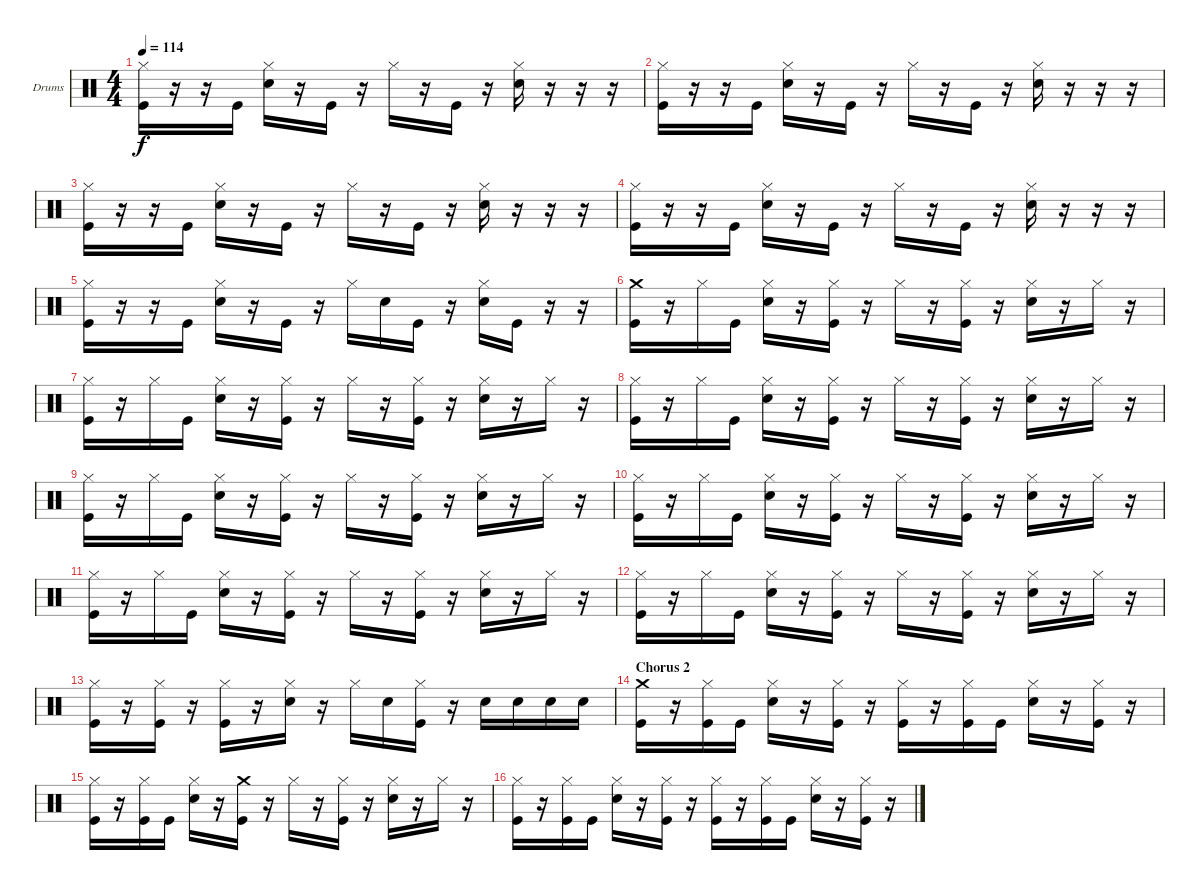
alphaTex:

\bracketExtendMode groupsimilarinstruments
\firstSystemTrackNameOrientation horizontal
\otherSystemsTrackNameOrientation horizontal
\track ("Drums" "Drums") {instrument percussion}
\staff {score}
\articulation defaults
\ts (4 4)
\tempo 114
\clef neutral
\ks c
("Hi-Hat (closed)" "Kick (hit)").16{dy f} r.16 r.16 "Kick (hit)".16 ("Hi-Hat (closed)" "Snare (hit) 2").16 r.16 "Kick (hit)".16 r.16 "Hi-Hat (closed)".16 r.16 "Kick (hit)".16 r.16 ("Hi-Hat (closed)" "Snare (hit) 2").16 r.16 r.16 r.16 |
("Hi-Hat (closed)" "Kick (hit)").16 r.16 r.16 "Kick (hit)".16 ("Hi-Hat (closed)" "Snare (hit) 2").16 r.16 "Kick (hit)".16 r.16 "Hi-Hat (closed)".16 r.16 "Kick (hit)".16 r.16 ("Hi-Hat (closed)" "Snare (hit) 2").16 r.16 r.16 r.16 |
("Hi-Hat (closed)" "Kick (hit)").16 r.16 r.16 "Kick (hit)".16 ("Hi-Hat (closed)" "Snare (hit) 2").16 r.16 "Kick (hit)".16 r.16 "Hi-Hat (closed)".16 r.16 "Kick (hit)".16 r.16 ("Hi-Hat (closed)" "Snare (hit) 2").16 r.16 r.16 r.16 |
("Hi-Hat (closed)" "Kick (hit)").16 r.16 r.16 "Kick (hit)".16 ("Hi-Hat (closed)" "Snare (hit) 2").16 r.16 "Kick (hit)".16 r.16 "Hi-Hat (closed)".16 r.16 "Kick (hit)".16 r.16 ("Hi-Hat (closed)" "Snare (hit) 2").16 r.16 r.16 r.16 |
("Hi-Hat (closed)" "Kick (hit)").16 r.16 r.16 "Kick (hit)".16 ("Hi-Hat (closed)" "Snare (hit) 2").16 r.16 "Kick (hit)".16 r.16 "Hi-Hat (closed)".16 "Snare (hit) 2".16 "Kick (hit)".16 r.16 ("Hi-Hat (closed)" "Snare (hit) 2").16 "Kick (hit)".16 r.16 r.16 |
("Crash medium (hit)" "Kick (hit)").16 r.16 "Hi-Hat (closed)".16 "Kick (hit)".16 ("Hi-Hat (closed)" "Snare (hit) 2").16 r.16 ("Hi-Hat (closed)" "Kick (hit)").16 r.16 "Hi-Hat (closed)".16 r.16 ("Hi-Hat (closed)" "Kick (hit)").16 r.16 ("Hi-Hat (closed)" "Snare (hit) 2").16 r.16 "Hi-Hat (closed)".16 r.16 |
("Hi-Hat (closed)" "Kick (hit)").16 r.16 "Hi-Hat (closed)".16 "Kick (hit)".16 ("Hi-Hat (closed)" "Snare (hit) 2").16 r.16 ("Hi-Hat (closed)" "Kick (hit)").16 r.16 "Hi-Hat (closed)".16 r.16 ("Hi-Hat (closed)" "Kick (hit)").16 r.16 ("Hi-Hat (closed)" "Snare (hit) 2").16 r.16 "Hi-Hat (closed)".16 r.16 |
("Hi-Hat (closed)" "Kick (hit)").16 r.16 "Hi-Hat (closed)".16 "Kick (hit)".16 ("Hi-Hat (closed)" "Snare (hit) 2").16 r.16 ("Hi-Hat (closed)" "Kick (hit)").16 r.16 "Hi-Hat (closed)".16 r.16 ("Hi-Hat (closed)" "Kick (hit)").16 r.16 ("Hi-Hat (closed)" "Snare (hit) 2").16 r.16 "Hi-Hat (closed)".16 r.16 |
("Hi-Hat (closed)" "Kick (hit)").16 r.16 "Hi-Hat (closed)".16 "Kick (hit)".16 ("Hi-Hat (closed)" "Snare (hit) 2").16 r.16 ("Hi-Hat (closed)" "Kick (hit)").16 r.16 "Hi-Hat (closed)".16 r.16 ("Hi-Hat (closed)" "Kick (hit)").16 r.16 ("Hi-Hat (closed)" "Snare (hit) 2").16 r.16 "Hi-Hat (closed)".16 r.16 |
("Hi-Hat (closed)" "Kick (hit)").16 r.16 "Hi-Hat (closed)".16 "Kick (hit)".16 ("Hi-Hat (closed)" "Snare (hit) 2").16 r.16 ("Hi-Hat (closed)" "Kick (hit)").16 r.16 "Hi-Hat (closed)".16 r.16 ("Hi-Hat (closed)" "Kick (hit)").16 r.16 ("Hi-Hat (closed)" "Snare (hit) 2").16 r.16 "Hi-Hat (closed)".16 r.16 |
("Hi-Hat (closed)" "Kick (hit)").16 r.16 "Hi-Hat (closed)".16 "Kick (hit)".16 ("Hi-Hat (closed)" "Snare (hit) 2").16 r.16 ("Hi-Hat (closed)" "Kick (hit)").16 r.16 "Hi-Hat (closed)".16 r.16 ("Hi-Hat (closed)" "Kick (hit)").16 r.16 ("Hi-Hat (closed)" "Snare (hit) 2").16 r.16 "Hi-Hat (closed)".16 r.16 |
("Hi-Hat (closed)" "Kick (hit)").16 r.16 "Hi-Hat (closed)".16 "Kick (hit)".16 ("Hi-Hat (closed)" "Snare (hit) 2").16 r.16 ("Hi-Hat (closed)" "Kick (hit)").16 r.16 "Hi-Hat (closed)".16 r.16 ("Hi-Hat (closed)" "Kick (hit)").16 r.16 ("Hi-Hat (closed)" "Snare (hit) 2").16 r.16 "Hi-Hat (closed)".16 r.16 |
("Hi-Hat (closed)" "Kick (hit)").16 r.16 ("Hi-Hat (closed)" "Kick (hit)").16 r.16 ("Hi-Hat (closed)" "Kick (hit)").16 r.16 ("Hi-Hat (closed)" "Snare (hit) 2").16 r.16 "Hi-Hat (closed)".16 "Snare (hit) 2".16 ("Hi-Hat (closed)" "Kick (hit)").16 r.16 "Snare (hit) 2".16 "Snare (hit) 2".16 "Snare (hit) 2".16 "Snare (hit) 2".16 |
\section ("" "Chorus 2")
("Crash medium (hit)" "Kick (hit)").16 r.16 ("Hi-Hat (closed)" "Kick (hit)").16 "Kick (hit)".16 ("Hi-Hat (closed)" "Snare (hit) 2").16 r.16 ("Hi-Hat (closed)" "Kick (hit)").16 r.16 ("Hi-Hat (closed)" "Kick (hit)").16 r.16 ("Hi-Hat (closed)" "Kick (hit)").16 "Kick (hit)".16 ("Hi-Hat (closed)" "Snare (hit) 2").16 r.16 ("Hi-Hat (closed)" "Kick (hit)").16 r.16 |
("Hi-Hat (closed)" "Kick (hit)").16 r.16 ("Hi-Hat (closed)" "Kick (hit)").16 "Kick (hit)".16 ("Hi-Hat (closed)" "Snare (hit) 2").16 r.16 ("Crash medium (hit)" "Kick (hit)").16 r.16 "Hi-Hat (closed)".16 r.16 ("Hi-Hat (closed)" "Kick (hit)").16 r.16 ("Hi-Hat (closed)" "Snare (hit) 2").16 r.16 "Hi-Hat (closed)".16 r.16 |
("Hi-Hat (closed)" "Kick (hit)").16 r.16 ("Hi-Hat (closed)" "Kick (hit)").16 "Kick (hit)".16 ("Hi-Hat (closed)" "Snare (hit) 2").16 r.16 ("Hi-Hat (closed)" "Kick (hit)").16 r.16 ("Hi-Hat (closed)" "Kick (hit)").16 r.16 ("Hi-Hat (closed)" "Kick (hit)").16 "Kick (hit)".16 ("Hi-Hat (closed)" "Snare (hit) 2").16 r.16 ("Hi-Hat (closed)" "Kick (hit)").16 r.16
